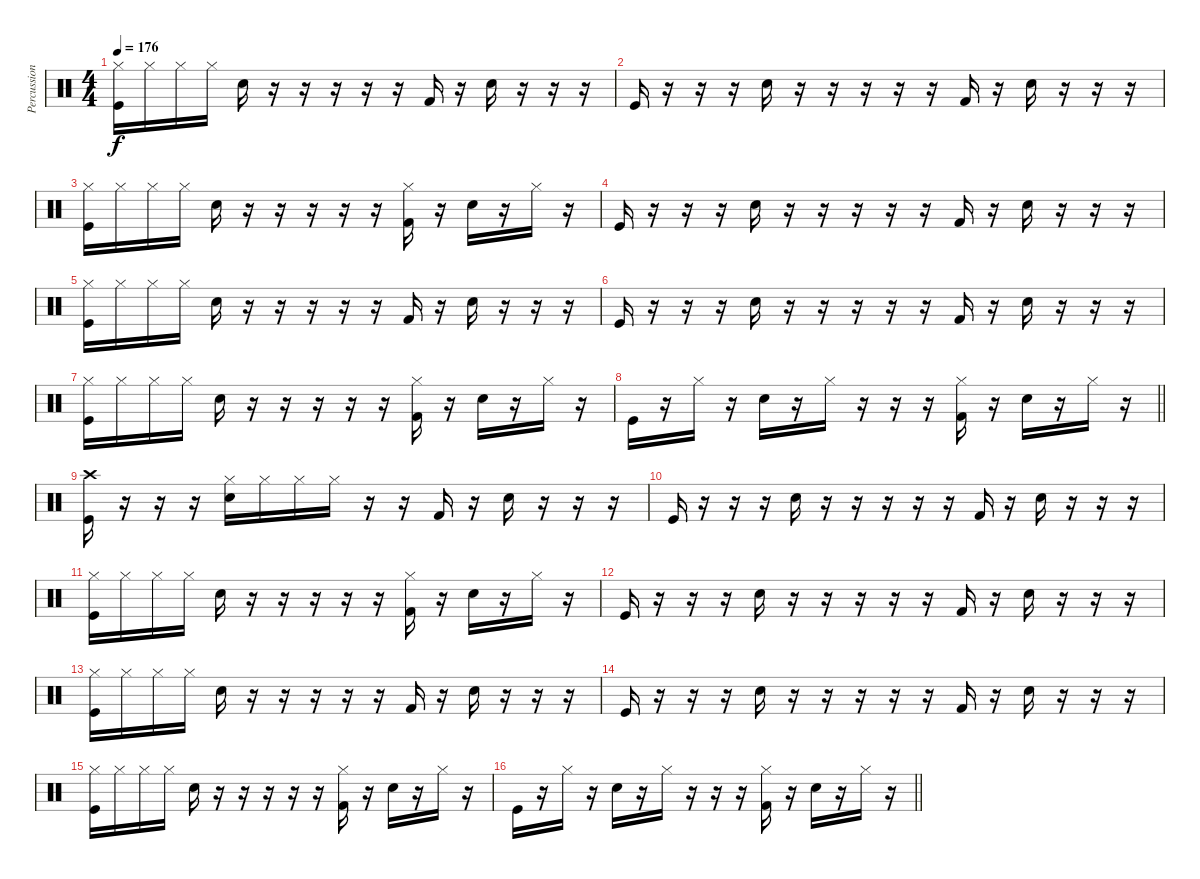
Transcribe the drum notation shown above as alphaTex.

\track ("Percussion" "Percussion") {instrument percussion}
\staff {score}
\articulation defaults
\ts (4 4)
\tempo 176
\clef neutral
\ks c
("Kick (hit)" "Hi-Hat (closed)").16{dy f} "Hi-Hat (closed)".16 "Hi-Hat (closed)".16 "Hi-Hat (closed)".16 "Electric Snare (hit)".16 r.16 r.16 r.16 r.16 r.16 "Kick (hit) 2".16 r.16 "Electric Snare (hit)".16 r.16 r.16 r.16 |
"Kick (hit)".16 r.16 r.16 r.16 "Electric Snare (hit)".16 r.16 r.16 r.16 r.16 r.16 "Kick (hit) 2".16 r.16 "Electric Snare (hit)".16 r.16 r.16 r.16 |
("Kick (hit)" "Hi-Hat (closed)").16 "Hi-Hat (closed)".16 "Hi-Hat (closed)".16 "Hi-Hat (closed)".16 "Electric Snare (hit)".16 r.16 r.16 r.16 r.16 r.16 ("Kick (hit) 2" "Hi-Hat (closed)").16 r.16 "Electric Snare (hit)".16 r.16 "Hi-Hat (closed)".16 r.16 |
"Kick (hit)".16 r.16 r.16 r.16 "Electric Snare (hit)".16 r.16 r.16 r.16 r.16 r.16 "Kick (hit) 2".16 r.16 "Electric Snare (hit)".16 r.16 r.16 r.16 |
("Kick (hit)" "Hi-Hat (closed)").16 "Hi-Hat (closed)".16 "Hi-Hat (closed)".16 "Hi-Hat (closed)".16 "Electric Snare (hit)".16 r.16 r.16 r.16 r.16 r.16 "Kick (hit) 2".16 r.16 "Electric Snare (hit)".16 r.16 r.16 r.16 |
"Kick (hit)".16 r.16 r.16 r.16 "Electric Snare (hit)".16 r.16 r.16 r.16 r.16 r.16 "Kick (hit) 2".16 r.16 "Electric Snare (hit)".16 r.16 r.16 r.16 |
("Kick (hit)" "Hi-Hat (closed)").16 "Hi-Hat (closed)".16 "Hi-Hat (closed)".16 "Hi-Hat (closed)".16 "Electric Snare (hit)".16 r.16 r.16 r.16 r.16 r.16 ("Kick (hit) 2" "Hi-Hat (closed)").16 r.16 "Electric Snare (hit)".16 r.16 "Hi-Hat (closed)".16 r.16 |
\barLineRight lightlight "Kick (hit)".16
r.16 "Hi-Hat (closed)".16 r.16 "Electric Snare (hit)".16 r.16 "Hi-Hat (closed)".16 r.16 r.16 r.16 ("Kick (hit) 2" "Hi-Hat (closed)").16 r.16 "Electric Snare (hit)".16 r.16 "Hi-Hat (closed)".16 r.16 |
("Kick (hit)" "Crash high (hit)").16 r.16 r.16 r.16 ("Electric Snare (hit)" "Hi-Hat (closed)").16 "Hi-Hat (closed)".16 "Hi-Hat (closed)".16 "Hi-Hat (closed)".16 r.16 r.16 "Kick (hit) 2".16 r.16 "Electric Snare (hit)".16 r.16 r.16 r.16 |
"Kick (hit)".16 r.16 r.16 r.16 "Electric Snare (hit)".16 r.16 r.16 r.16 r.16 r.16 "Kick (hit) 2".16 r.16 "Electric Snare (hit)".16 r.16 r.16 r.16 |
("Kick (hit)" "Hi-Hat (closed)").16 "Hi-Hat (closed)".16 "Hi-Hat (closed)".16 "Hi-Hat (closed)".16 "Electric Snare (hit)".16 r.16 r.16 r.16 r.16 r.16 ("Kick (hit) 2" "Hi-Hat (closed)").16 r.16 "Electric Snare (hit)".16 r.16 "Hi-Hat (closed)".16 r.16 |
"Kick (hit)".16 r.16 r.16 r.16 "Electric Snare (hit)".16 r.16 r.16 r.16 r.16 r.16 "Kick (hit) 2".16 r.16 "Electric Snare (hit)".16 r.16 r.16 r.16 |
("Kick (hit)" "Hi-Hat (closed)").16 "Hi-Hat (closed)".16 "Hi-Hat (closed)".16 "Hi-Hat (closed)".16 "Electric Snare (hit)".16 r.16 r.16 r.16 r.16 r.16 "Kick (hit) 2".16 r.16 "Electric Snare (hit)".16 r.16 r.16 r.16 |
"Kick (hit)".16 r.16 r.16 r.16 "Electric Snare (hit)".16 r.16 r.16 r.16 r.16 r.16 "Kick (hit) 2".16 r.16 "Electric Snare (hit)".16 r.16 r.16 r.16 |
("Kick (hit)" "Hi-Hat (closed)").16 "Hi-Hat (closed)".16 "Hi-Hat (closed)".16 "Hi-Hat (closed)".16 "Electric Snare (hit)".16 r.16 r.16 r.16 r.16 r.16 ("Kick (hit) 2" "Hi-Hat (closed)").16 r.16 "Electric Snare (hit)".16 r.16 "Hi-Hat (closed)".16 r.16 |
\barLineRight lightlight "Kick (hit)".16
r.16 "Hi-Hat (closed)".16 r.16 "Electric Snare (hit)".16 r.16 "Hi-Hat (closed)".16 r.16 r.16 r.16 ("Kick (hit) 2" "Hi-Hat (closed)").16 r.16 "Electric Snare (hit)".16 r.16 "Hi-Hat (closed)".16 r.16
